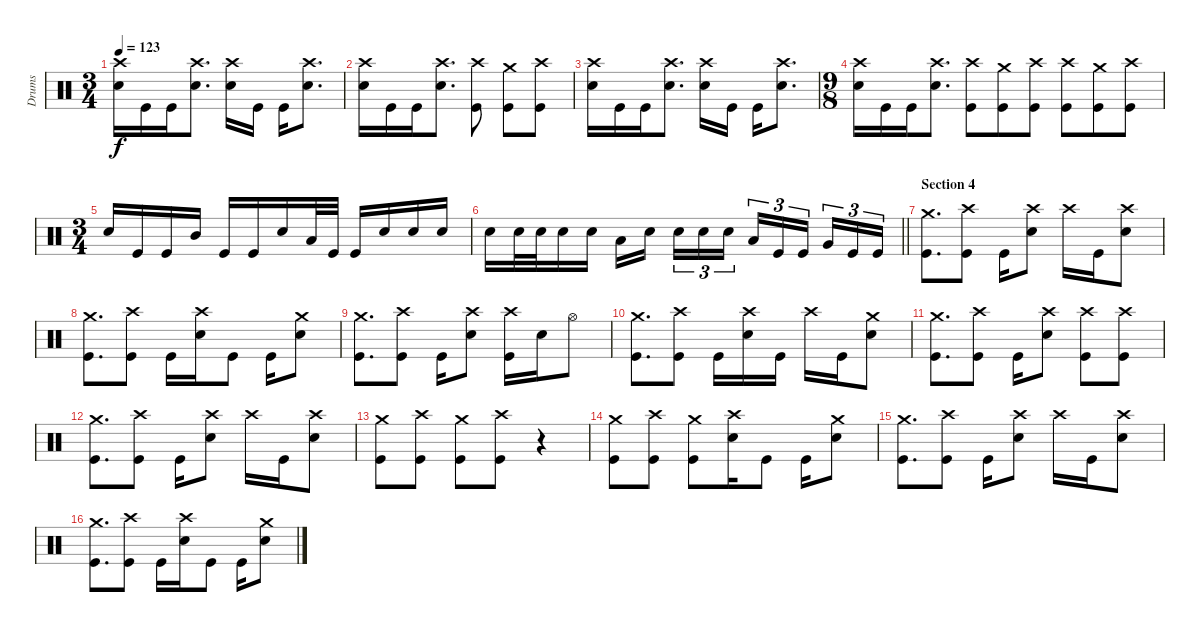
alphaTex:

\track ("Drums" "Drums") {instrument percussion}
\staff {score}
\articulation defaults
\ts (3 4)
\tempo 123
\clef neutral
\ks c
("Crash high (hit)" "Snare (hit) 2").16{dy f} "Kick (hit)".16 "Kick (hit)".16 ("Crash high (hit)" "Snare (hit) 2").8{d} ("Crash high (hit)" "Snare (hit) 2").16 "Kick (hit)".16 "Kick (hit)".16 ("Crash high (hit)" "Snare (hit) 2").8{d} |
("Crash high (hit)" "Snare (hit) 2").16 "Kick (hit)".16 "Kick (hit)".16 ("Crash high (hit)" "Snare (hit) 2").8{d} ("Crash high (hit)" "Kick (hit)").8 ("Crash medium (hit)" "Kick (hit)").8 ("Crash high (hit)" "Kick (hit)").8 |
("Crash high (hit)" "Snare (hit) 2").16 "Kick (hit)".16 "Kick (hit)".16 ("Crash high (hit)" "Snare (hit) 2").8{d} ("Crash high (hit)" "Snare (hit) 2").16 "Kick (hit)".16 "Kick (hit)".16 ("Crash high (hit)" "Snare (hit) 2").8{d} |
\ts (9 8)
("Crash high (hit)" "Snare (hit) 2").16 "Kick (hit)".16 "Kick (hit)".16 ("Crash high (hit)" "Snare (hit) 2").8{d} ("Crash high (hit)" "Kick (hit)").8 ("Crash medium (hit)" "Kick (hit)").8 ("Crash high (hit)" "Kick (hit)").8 ("Crash high (hit)" "Kick (hit)").8 ("Crash medium (hit)" "Kick (hit)").8 ("Crash high (hit)" "Kick (hit)").8 |
\ts (3 4)
"Snare (hit) 2".16 "Kick (hit)".16 "Kick (hit)".16 "Mid Tom (hit)".16 "Kick (hit)".16 "Kick (hit)".16 "Snare (hit) 2".16 "Low Tom (hit)".32 "Kick (hit)".32 "Kick (hit)".16 "Snare (hit) 2".16 "Snare (hit) 2".16 "Snare (hit) 2".16 |
\barLineRight lightlight "Snare (hit) 2".16 "Snare (hit) 2".32 "Snare (hit) 2".32 "Snare (hit) 2".16 "Snare (hit) 2".16 "Low Tom (hit)".16 "Snare (hit) 2".16{beam splitsecondary} "Snare (hit) 2".16{tu (3 2)} "Snare (hit) 2".16{tu (3 2)} "Snare (hit) 2".16{tu (3 2)} "Low Tom (hit)".16{tu (3 2)} "Kick (hit)".16{tu (3 2)} "Kick (hit)".16{tu (3 2) beam splitsecondary} "Very Low Tom (hit)".16{tu (3 2)} "Kick (hit)".16{tu (3 2)} "Kick (hit)".16{tu (3 2)}
|
\section ("" "Section 4")
("Crash medium (hit)" "Kick (hit)").8{d} ("Crash high (hit)" "Kick (hit)").8 "Kick (hit)".16 ("Crash high (hit)" "Snare (hit) 2").8 "Crash high (hit)".16 "Kick (hit)".16 ("Crash high (hit)" "Snare (hit) 2").8 |
("Crash medium (hit)" "Kick (hit)").8{d} ("Crash high (hit)" "Kick (hit)").8 "Kick (hit)".16 ("Crash high (hit)" "Snare (hit) 2").16 "Kick (hit)".8 "Kick (hit)".16 ("Crash medium (hit)" "Snare (hit) 2").8 |
("Crash medium (hit)" "Kick (hit)").8{d} ("Crash high (hit)" "Kick (hit)").8 "Kick (hit)".16 ("Crash high (hit)" "Snare (hit) 2").8 ("Crash high (hit)" "Kick (hit)").16 "Snare (hit) 2".16 "Hi-Hat (open)".8 |
("Crash medium (hit)" "Kick (hit)").8{d} ("Crash high (hit)" "Kick (hit)").8 "Kick (hit)".16 ("Crash high (hit)" "Snare (hit) 2").16 "Kick (hit)".16 "Crash high (hit)".16 "Kick (hit)".16 ("Crash medium (hit)" "Snare (hit) 2").8 |
("Crash medium (hit)" "Kick (hit)").8{d} ("Crash high (hit)" "Kick (hit)").8 "Kick (hit)".16 ("Crash high (hit)" "Snare (hit) 2").8 ("Crash high (hit)" "Kick (hit)").8 ("Crash high (hit)" "Kick (hit)").8 |
("Crash medium (hit)" "Kick (hit)").8{d} ("Crash high (hit)" "Kick (hit)").8 "Kick (hit)".16 ("Crash high (hit)" "Snare (hit) 2").8 "Crash high (hit)".16 "Kick (hit)".16 ("Crash high (hit)" "Snare (hit) 2").8 |
("Crash medium (hit)" "Kick (hit)").8 ("Crash high (hit)" "Kick (hit)").8 ("Crash medium (hit)" "Kick (hit)").8 ("Crash high (hit)" "Kick (hit)").8 r.4 |
("Crash medium (hit)" "Kick (hit)").8 ("Crash high (hit)" "Kick (hit)").8 ("Crash medium (hit)" "Kick (hit)").8 ("Crash high (hit)" "Snare (hit) 2").16 "Kick (hit)".8 "Kick (hit)".16 ("Crash medium (hit)" "Snare (hit) 2").8 |
("Crash medium (hit)" "Kick (hit)").8{d} ("Crash high (hit)" "Kick (hit)").8 "Kick (hit)".16 ("Crash high (hit)" "Snare (hit) 2").8 "Crash high (hit)".16 "Kick (hit)".16 ("Crash high (hit)" "Snare (hit) 2").8 |
("Crash medium (hit)" "Kick (hit)").8{d} ("Crash high (hit)" "Kick (hit)").8 "Kick (hit)".16 ("Crash high (hit)" "Snare (hit) 2").16 "Kick (hit)".8 "Kick (hit)".16 ("Crash medium (hit)" "Snare (hit) 2").8
